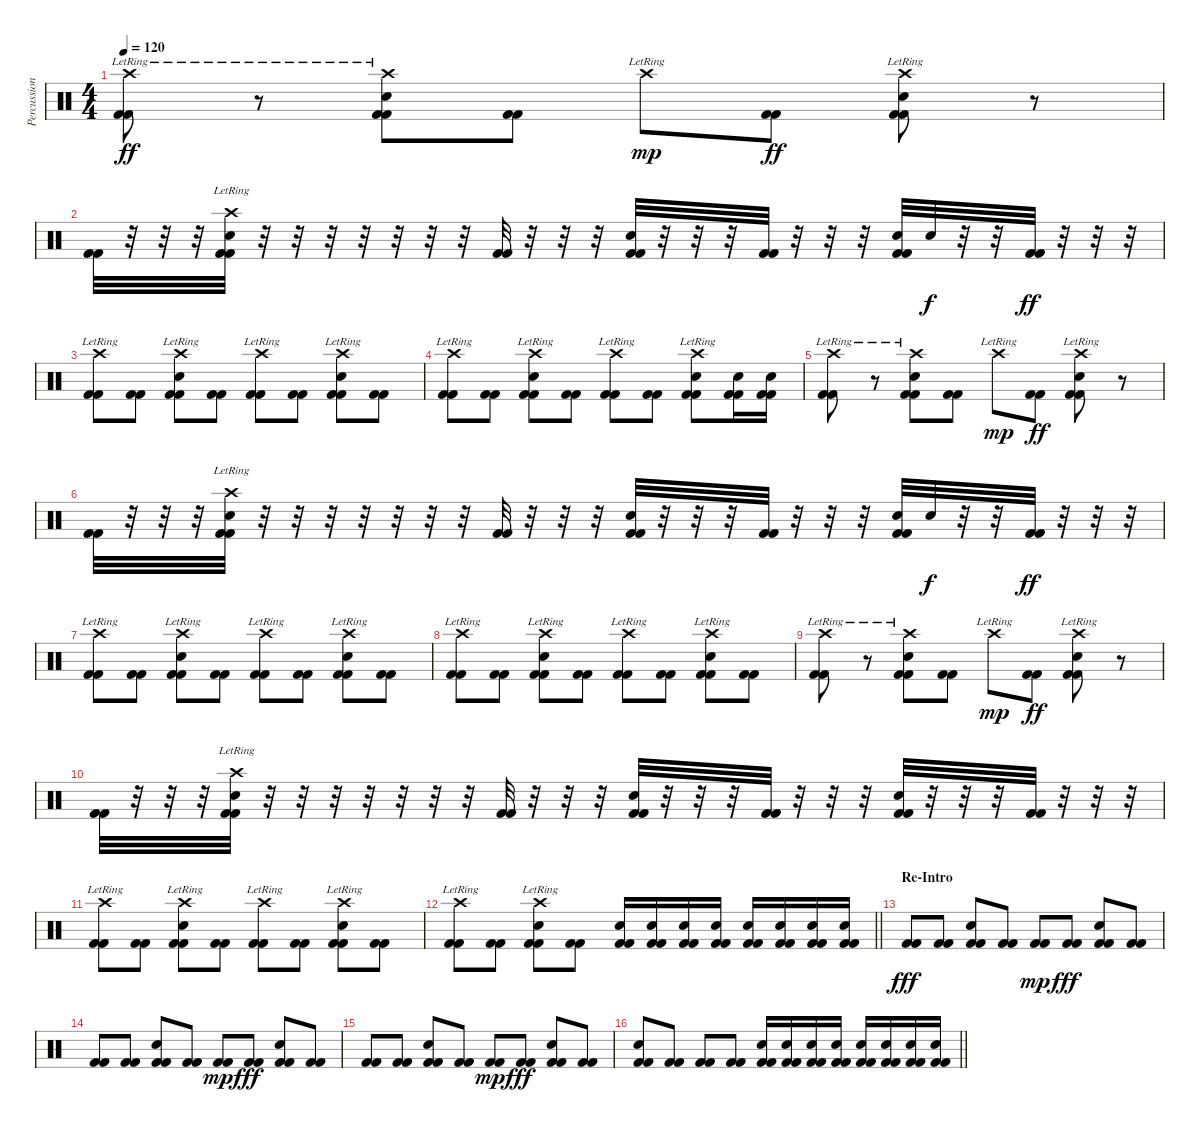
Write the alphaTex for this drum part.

\track ("Percussion" "Percussion") {instrument percussion}
\staff {score}
\articulation defaults
\ts (4 4)
\tempo 120
\clef neutral
\ks c
("Crash high (hit)"{lr} "Kick (hit) 2" "Kick (hit) 2").8{dy ff} r.8 ("Crash high (hit)"{lr} "Snare (hit) 2" "Kick (hit) 2" "Kick (hit) 2").8 ("Kick (hit) 2" "Kick (hit) 2").8 "Crash high (hit)"{lr}.8{dy mp} ("Kick (hit) 2" "Kick (hit) 2").8{dy ff} ("Crash high (hit)"{lr} "Snare (hit) 2" "Kick (hit) 2" "Kick (hit) 2").8 r.8 |
("Kick (hit) 2" "Kick (hit) 2").32 r.32 r.32 r.32 ("Crash high (hit)"{lr} "Snare (hit) 2" "Kick (hit) 2" "Kick (hit) 2").32 r.32 r.32 r.32 r.32 r.32 r.32 r.32 ("Kick (hit) 2" "Kick (hit) 2").32 r.32 r.32 r.32 ("Snare (hit) 2" "Kick (hit) 2" "Kick (hit) 2").32 r.32 r.32 r.32 ("Kick (hit) 2" "Kick (hit) 2").32 r.32 r.32 r.32 ("Snare (hit) 2" "Kick (hit) 2" "Kick (hit) 2").32 "Snare (hit) 2".32{dy f} r.32 r.32 ("Kick (hit) 2" "Kick (hit) 2").32{dy ff} r.32 r.32 r.32 |
("Crash high (hit)"{lr} "Kick (hit) 2" "Kick (hit) 2").8 ("Kick (hit) 2" "Kick (hit) 2").8 ("Crash high (hit)"{lr} "Snare (hit) 2" "Kick (hit) 2" "Kick (hit) 2").8 ("Kick (hit) 2" "Kick (hit) 2").8 ("Crash high (hit)"{lr} "Kick (hit) 2" "Kick (hit) 2").8 ("Kick (hit) 2" "Kick (hit) 2").8 ("Crash high (hit)"{lr} "Snare (hit) 2" "Kick (hit) 2" "Kick (hit) 2").8 ("Kick (hit) 2" "Kick (hit) 2").8 |
("Crash high (hit)"{lr} "Kick (hit) 2" "Kick (hit) 2").8 ("Kick (hit) 2" "Kick (hit) 2").8 ("Crash high (hit)"{lr} "Snare (hit) 2" "Kick (hit) 2" "Kick (hit) 2").8 ("Kick (hit) 2" "Kick (hit) 2").8 ("Crash high (hit)"{lr} "Kick (hit) 2" "Kick (hit) 2").8 ("Kick (hit) 2" "Kick (hit) 2").8 ("Crash high (hit)"{lr} "Snare (hit) 2" "Kick (hit) 2" "Kick (hit) 2").8 ("Snare (hit) 2" "Kick (hit) 2" "Kick (hit) 2").16 ("Snare (hit) 2" "Kick (hit) 2" "Kick (hit) 2").16 |
("Crash high (hit)"{lr} "Kick (hit) 2" "Kick (hit) 2").8 r.8 ("Crash high (hit)"{lr} "Snare (hit) 2" "Kick (hit) 2" "Kick (hit) 2").8 ("Kick (hit) 2" "Kick (hit) 2").8 "Crash high (hit)"{lr}.8{dy mp} ("Kick (hit) 2" "Kick (hit) 2").8{dy ff} ("Crash high (hit)"{lr} "Snare (hit) 2" "Kick (hit) 2" "Kick (hit) 2").8 r.8 |
("Kick (hit) 2" "Kick (hit) 2").32 r.32 r.32 r.32 ("Crash high (hit)"{lr} "Snare (hit) 2" "Kick (hit) 2" "Kick (hit) 2").32 r.32 r.32 r.32 r.32 r.32 r.32 r.32 ("Kick (hit) 2" "Kick (hit) 2").32 r.32 r.32 r.32 ("Snare (hit) 2" "Kick (hit) 2" "Kick (hit) 2").32 r.32 r.32 r.32 ("Kick (hit) 2" "Kick (hit) 2").32 r.32 r.32 r.32 ("Snare (hit) 2" "Kick (hit) 2" "Kick (hit) 2").32 "Snare (hit) 2".32{dy f} r.32 r.32 ("Kick (hit) 2" "Kick (hit) 2").32{dy ff} r.32 r.32 r.32 |
("Crash high (hit)"{lr} "Kick (hit) 2" "Kick (hit) 2").8 ("Kick (hit) 2" "Kick (hit) 2").8 ("Crash high (hit)"{lr} "Snare (hit) 2" "Kick (hit) 2" "Kick (hit) 2").8 ("Kick (hit) 2" "Kick (hit) 2").8 ("Crash high (hit)"{lr} "Kick (hit) 2" "Kick (hit) 2").8 ("Kick (hit) 2" "Kick (hit) 2").8 ("Crash high (hit)"{lr} "Snare (hit) 2" "Kick (hit) 2" "Kick (hit) 2").8 ("Kick (hit) 2" "Kick (hit) 2").8 |
("Crash high (hit)"{lr} "Kick (hit) 2" "Kick (hit) 2").8 ("Kick (hit) 2" "Kick (hit) 2").8 ("Crash high (hit)"{lr} "Snare (hit) 2" "Kick (hit) 2" "Kick (hit) 2").8 ("Kick (hit) 2" "Kick (hit) 2").8 ("Crash high (hit)"{lr} "Kick (hit) 2" "Kick (hit) 2").8 ("Kick (hit) 2" "Kick (hit) 2").8 ("Crash high (hit)"{lr} "Snare (hit) 2" "Kick (hit) 2" "Kick (hit) 2").8 ("Kick (hit) 2" "Kick (hit) 2").8 |
("Crash high (hit)"{lr} "Kick (hit) 2" "Kick (hit) 2").8 r.8 ("Crash high (hit)"{lr} "Snare (hit) 2" "Kick (hit) 2" "Kick (hit) 2").8 ("Kick (hit) 2" "Kick (hit) 2").8 "Crash high (hit)"{lr}.8{dy mp} ("Kick (hit) 2" "Kick (hit) 2").8{dy ff} ("Crash high (hit)"{lr} "Snare (hit) 2" "Kick (hit) 2" "Kick (hit) 2").8 r.8 |
("Kick (hit) 2" "Kick (hit) 2").32 r.32 r.32 r.32 ("Crash high (hit)"{lr} "Snare (hit) 2" "Kick (hit) 2" "Kick (hit) 2").32 r.32 r.32 r.32 r.32 r.32 r.32 r.32 ("Kick (hit) 2" "Kick (hit) 2").32 r.32 r.32 r.32 ("Snare (hit) 2" "Kick (hit) 2" "Kick (hit) 2").32 r.32 r.32 r.32 ("Kick (hit) 2" "Kick (hit) 2").32 r.32 r.32 r.32 ("Snare (hit) 2" "Kick (hit) 2" "Kick (hit) 2").32 r.32 r.32 r.32 ("Kick (hit) 2" "Kick (hit) 2").32 r.32 r.32 r.32 |
("Crash high (hit)"{lr} "Kick (hit) 2" "Kick (hit) 2").8 ("Kick (hit) 2" "Kick (hit) 2").8 ("Crash high (hit)"{lr} "Snare (hit) 2" "Kick (hit) 2" "Kick (hit) 2").8 ("Kick (hit) 2" "Kick (hit) 2").8 ("Crash high (hit)"{lr} "Kick (hit) 2" "Kick (hit) 2").8 ("Kick (hit) 2" "Kick (hit) 2").8 ("Crash high (hit)"{lr} "Snare (hit) 2" "Kick (hit) 2" "Kick (hit) 2").8 ("Kick (hit) 2" "Kick (hit) 2").8 |
\barLineRight lightlight
("Crash high (hit)"{lr} "Kick (hit) 2" "Kick (hit) 2").8 ("Kick (hit) 2" "Kick (hit) 2").8 ("Crash high (hit)"{lr} "Snare (hit) 2" "Kick (hit) 2" "Kick (hit) 2").8 ("Kick (hit) 2" "Kick (hit) 2").8 ("Snare (hit) 2" "Kick (hit) 2" "Kick (hit) 2").16 ("Snare (hit) 2" "Kick (hit) 2" "Kick (hit) 2").16 ("Snare (hit) 2" "Kick (hit) 2" "Kick (hit) 2").16 ("Snare (hit) 2" "Kick (hit) 2" "Kick (hit) 2").16 ("Snare (hit) 2" "Kick (hit) 2" "Kick (hit) 2").16 ("Snare (hit) 2" "Kick (hit) 2" "Kick (hit) 2").16 ("Snare (hit) 2" "Kick (hit) 2" "Kick (hit) 2").16 ("Snare (hit) 2" "Kick (hit) 2" "Kick (hit) 2").16 |
\section ("" "Re-Intro")
("Kick (hit) 2" "Kick (hit) 2").8{dy fff} ("Kick (hit) 2" "Kick (hit) 2").8 ("Snare (hit) 2" "Kick (hit) 2" "Kick (hit) 2").8 ("Kick (hit) 2" "Kick (hit) 2").8 ("Kick (hit) 2" "Kick (hit) 2").8{dy mp} ("Kick (hit) 2" "Kick (hit) 2").8{dy fff} ("Snare (hit) 2" "Kick (hit) 2" "Kick (hit) 2").8 ("Kick (hit) 2" "Kick (hit) 2").8 |
("Kick (hit) 2" "Kick (hit) 2").8 ("Kick (hit) 2" "Kick (hit) 2").8 ("Snare (hit) 2" "Kick (hit) 2" "Kick (hit) 2").8 ("Kick (hit) 2" "Kick (hit) 2").8 ("Kick (hit) 2" "Kick (hit) 2").8{dy mp} ("Kick (hit) 2" "Kick (hit) 2").8{dy fff} ("Snare (hit) 2" "Kick (hit) 2" "Kick (hit) 2").8 ("Kick (hit) 2" "Kick (hit) 2").8 |
("Kick (hit) 2" "Kick (hit) 2").8 ("Kick (hit) 2" "Kick (hit) 2").8 ("Snare (hit) 2" "Kick (hit) 2" "Kick (hit) 2").8 ("Kick (hit) 2" "Kick (hit) 2").8 ("Kick (hit) 2" "Kick (hit) 2").8{dy mp} ("Kick (hit) 2" "Kick (hit) 2").8{dy fff} ("Snare (hit) 2" "Kick (hit) 2" "Kick (hit) 2").8 ("Kick (hit) 2" "Kick (hit) 2").8 |
\barLineRight lightlight
("Snare (hit) 2" "Kick (hit) 2" "Kick (hit) 2").8 ("Kick (hit) 2" "Kick (hit) 2").8 ("Kick (hit) 2" "Kick (hit) 2").8 ("Kick (hit) 2" "Kick (hit) 2").8 ("Snare (hit) 2" "Kick (hit) 2" "Kick (hit) 2").16 ("Snare (hit) 2" "Kick (hit) 2" "Kick (hit) 2").16 ("Snare (hit) 2" "Kick (hit) 2" "Kick (hit) 2").16 ("Snare (hit) 2" "Kick (hit) 2" "Kick (hit) 2").16 ("Snare (hit) 2" "Kick (hit) 2" "Kick (hit) 2").16 ("Snare (hit) 2" "Kick (hit) 2" "Kick (hit) 2").16 ("Snare (hit) 2" "Kick (hit) 2" "Kick (hit) 2").16 ("Snare (hit) 2" "Kick (hit) 2" "Kick (hit) 2").16
